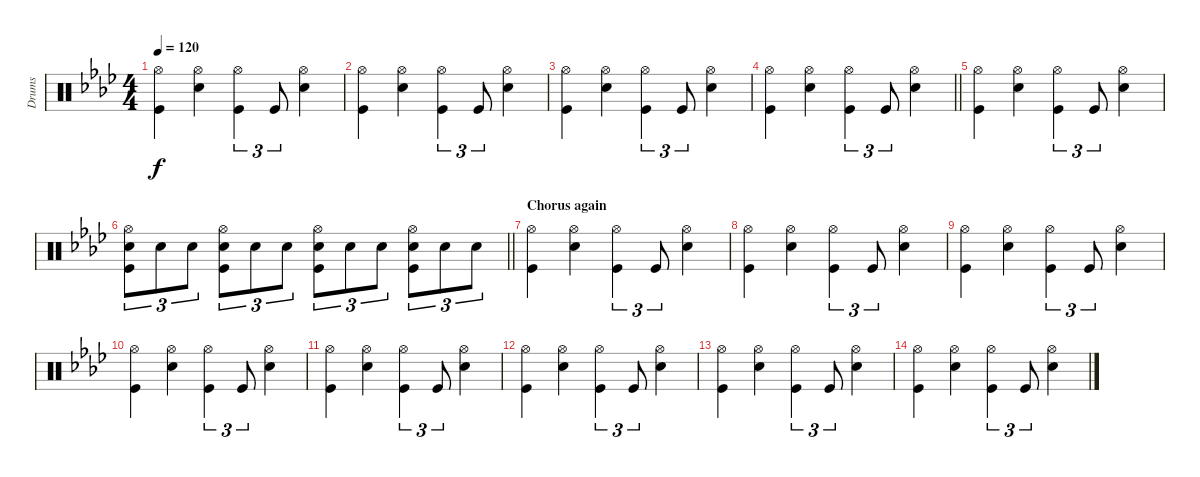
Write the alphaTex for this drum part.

\track ("Drums" "Drums") {instrument percussion}
\staff {score}
\articulation defaults
\ts (4 4)
\tempo 120
\clef neutral
\ks ab
("Hi-Hat (open)" "Kick (hit)").4{dy f} ("Hi-Hat (open)" "Snare (hit) 2").4 ("Hi-Hat (open)" "Kick (hit)").4{tu (3 2)} "Kick (hit)".8{tu (3 2)} ("Hi-Hat (open)" "Snare (hit) 2").4 |
("Hi-Hat (open)" "Kick (hit)").4 ("Hi-Hat (open)" "Snare (hit) 2").4 ("Hi-Hat (open)" "Kick (hit)").4{tu (3 2)} "Kick (hit)".8{tu (3 2)} ("Hi-Hat (open)" "Snare (hit) 2").4 |
("Hi-Hat (open)" "Kick (hit)").4 ("Hi-Hat (open)" "Snare (hit) 2").4 ("Hi-Hat (open)" "Kick (hit)").4{tu (3 2)} "Kick (hit)".8{tu (3 2)} ("Hi-Hat (open)" "Snare (hit) 2").4 |
\barLineRight lightlight
("Hi-Hat (open)" "Kick (hit)").4 ("Hi-Hat (open)" "Snare (hit) 2").4 ("Hi-Hat (open)" "Kick (hit)").4{tu (3 2)} "Kick (hit)".8{tu (3 2)} ("Hi-Hat (open)" "Snare (hit) 2").4 |
("Hi-Hat (open)" "Kick (hit)").4 ("Hi-Hat (open)" "Snare (hit) 2").4 ("Hi-Hat (open)" "Kick (hit)").4{tu (3 2)} "Kick (hit)".8{tu (3 2)} ("Hi-Hat (open)" "Snare (hit) 2").4 |
\barLineRight lightlight
("Hi-Hat (open)" "Snare (hit) 2" "Kick (hit)").8{tu (3 2)} "Snare (hit) 2".8{tu (3 2)} "Snare (hit) 2".8{tu (3 2)} ("Hi-Hat (open)" "Snare (hit) 2" "Kick (hit)").8{tu (3 2)} "Snare (hit) 2".8{tu (3 2)} "Snare (hit) 2".8{tu (3 2)} ("Hi-Hat (open)" "Snare (hit) 2" "Kick (hit)").8{tu (3 2)} "Snare (hit) 2".8{tu (3 2)} "Snare (hit) 2".8{tu (3 2)} ("Hi-Hat (open)" "Snare (hit) 2" "Kick (hit)").8{tu (3 2)} "Snare (hit) 2".8{tu (3 2)} "Snare (hit) 2".8{tu (3 2)} |
\section ("" "Chorus again")
("Hi-Hat (open)" "Kick (hit)").4 ("Hi-Hat (open)" "Snare (hit) 2").4 ("Hi-Hat (open)" "Kick (hit)").4{tu (3 2)} "Kick (hit)".8{tu (3 2)} ("Hi-Hat (open)" "Snare (hit) 2").4 |
("Hi-Hat (open)" "Kick (hit)").4 ("Hi-Hat (open)" "Snare (hit) 2").4 ("Hi-Hat (open)" "Kick (hit)").4{tu (3 2)} "Kick (hit)".8{tu (3 2)} ("Hi-Hat (open)" "Snare (hit) 2").4 |
("Hi-Hat (open)" "Kick (hit)").4 ("Hi-Hat (open)" "Snare (hit) 2").4 ("Hi-Hat (open)" "Kick (hit)").4{tu (3 2)} "Kick (hit)".8{tu (3 2)} ("Hi-Hat (open)" "Snare (hit) 2").4 |
("Hi-Hat (open)" "Kick (hit)").4 ("Hi-Hat (open)" "Snare (hit) 2").4 ("Hi-Hat (open)" "Kick (hit)").4{tu (3 2)} "Kick (hit)".8{tu (3 2)} ("Hi-Hat (open)" "Snare (hit) 2").4 |
("Hi-Hat (open)" "Kick (hit)").4 ("Hi-Hat (open)" "Snare (hit) 2").4 ("Hi-Hat (open)" "Kick (hit)").4{tu (3 2)} "Kick (hit)".8{tu (3 2)} ("Hi-Hat (open)" "Snare (hit) 2").4 |
("Hi-Hat (open)" "Kick (hit)").4 ("Hi-Hat (open)" "Snare (hit) 2").4 ("Hi-Hat (open)" "Kick (hit)").4{tu (3 2)} "Kick (hit)".8{tu (3 2)} ("Hi-Hat (open)" "Snare (hit) 2").4 |
("Hi-Hat (open)" "Kick (hit)").4 ("Hi-Hat (open)" "Snare (hit) 2").4 ("Hi-Hat (open)" "Kick (hit)").4{tu (3 2)} "Kick (hit)".8{tu (3 2)} ("Hi-Hat (open)" "Snare (hit) 2").4 |
("Hi-Hat (open)" "Kick (hit)").4 ("Hi-Hat (open)" "Snare (hit) 2").4 ("Hi-Hat (open)" "Kick (hit)").4{tu (3 2)} "Kick (hit)".8{tu (3 2)} ("Hi-Hat (open)" "Snare (hit) 2").4
